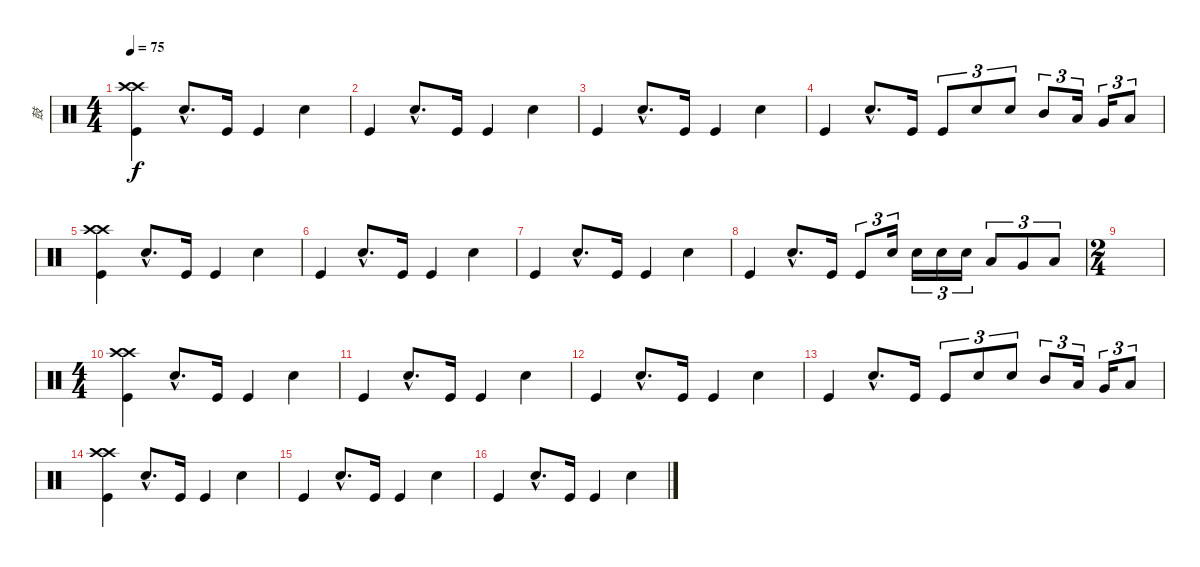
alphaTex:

\track ("鼓" "鼓") {instrument percussion}
\staff {score}
\articulation defaults
\ts (4 4)
\tempo 75
\clef neutral
\ks c
("Crash high (hit)" "Crash high (hit)" "Kick (hit)").4{dy f} "Snare (hit) 2"{hac}.8{d} "Kick (hit)".16 "Kick (hit)".4 "Snare (hit) 2".4 |
"Kick (hit)".4 "Snare (hit) 2"{hac}.8{d} "Kick (hit)".16 "Kick (hit)".4 "Snare (hit) 2".4 |
"Kick (hit)".4 "Snare (hit) 2"{hac}.8{d} "Kick (hit)".16 "Kick (hit)".4 "Snare (hit) 2".4 |
"Kick (hit)".4 "Snare (hit) 2"{hac}.8{d} "Kick (hit)".16 "Kick (hit)".8{tu (3 2)} "Snare (hit) 2".8{tu (3 2)} "Snare (hit) 2".8{tu (3 2)} "Mid Tom (hit)".8{tu (3 2)} "Low Tom (hit)".16{tu (3 2)} "Very Low Tom (hit)".16{tu (3 2)} "Low Floor Tom (hit)".8{tu (3 2)} |
("Crash high (hit)" "Crash high (hit)" "Kick (hit)").4 "Snare (hit) 2"{hac}.8{d} "Kick (hit)".16 "Kick (hit)".4 "Snare (hit) 2".4 |
"Kick (hit)".4 "Snare (hit) 2"{hac}.8{d} "Kick (hit)".16 "Kick (hit)".4 "Snare (hit) 2".4 |
"Kick (hit)".4 "Snare (hit) 2"{hac}.8{d} "Kick (hit)".16 "Kick (hit)".4 "Snare (hit) 2".4 |
"Kick (hit)".4 "Snare (hit) 2"{hac}.8{d} "Kick (hit)".16 "Kick (hit)".8{tu (3 2)} "Snare (hit) 2".16{tu (3 2)} "Snare (hit) 2".16{tu (3 2)} "Snare (hit) 2".16{tu (3 2)} "Snare (hit) 2".16{tu (3 2)} "Low Tom (hit)".8{tu (3 2)} "Very Low Tom (hit)".8{tu (3 2)} "Low Floor Tom (hit)".8{tu (3 2)} |
\ts (2 4)
|
\ts (4 4)
("Crash high (hit)" "Crash high (hit)" "Kick (hit)").4 "Snare (hit) 2"{hac}.8{d} "Kick (hit)".16 "Kick (hit)".4 "Snare (hit) 2".4 |
"Kick (hit)".4 "Snare (hit) 2"{hac}.8{d} "Kick (hit)".16 "Kick (hit)".4 "Snare (hit) 2".4 |
"Kick (hit)".4 "Snare (hit) 2"{hac}.8{d} "Kick (hit)".16 "Kick (hit)".4 "Snare (hit) 2".4 |
"Kick (hit)".4 "Snare (hit) 2"{hac}.8{d} "Kick (hit)".16 "Kick (hit)".8{tu (3 2)} "Snare (hit) 2".8{tu (3 2)} "Snare (hit) 2".8{tu (3 2)} "Mid Tom (hit)".8{tu (3 2)} "Low Tom (hit)".16{tu (3 2)} "Very Low Tom (hit)".16{tu (3 2)} "Low Floor Tom (hit)".8{tu (3 2)} |
("Crash high (hit)" "Crash high (hit)" "Kick (hit)").4 "Snare (hit) 2"{hac}.8{d} "Kick (hit)".16 "Kick (hit)".4 "Snare (hit) 2".4 |
"Kick (hit)".4 "Snare (hit) 2"{hac}.8{d} "Kick (hit)".16 "Kick (hit)".4 "Snare (hit) 2".4 |
"Kick (hit)".4 "Snare (hit) 2"{hac}.8{d} "Kick (hit)".16 "Kick (hit)".4 "Snare (hit) 2".4
